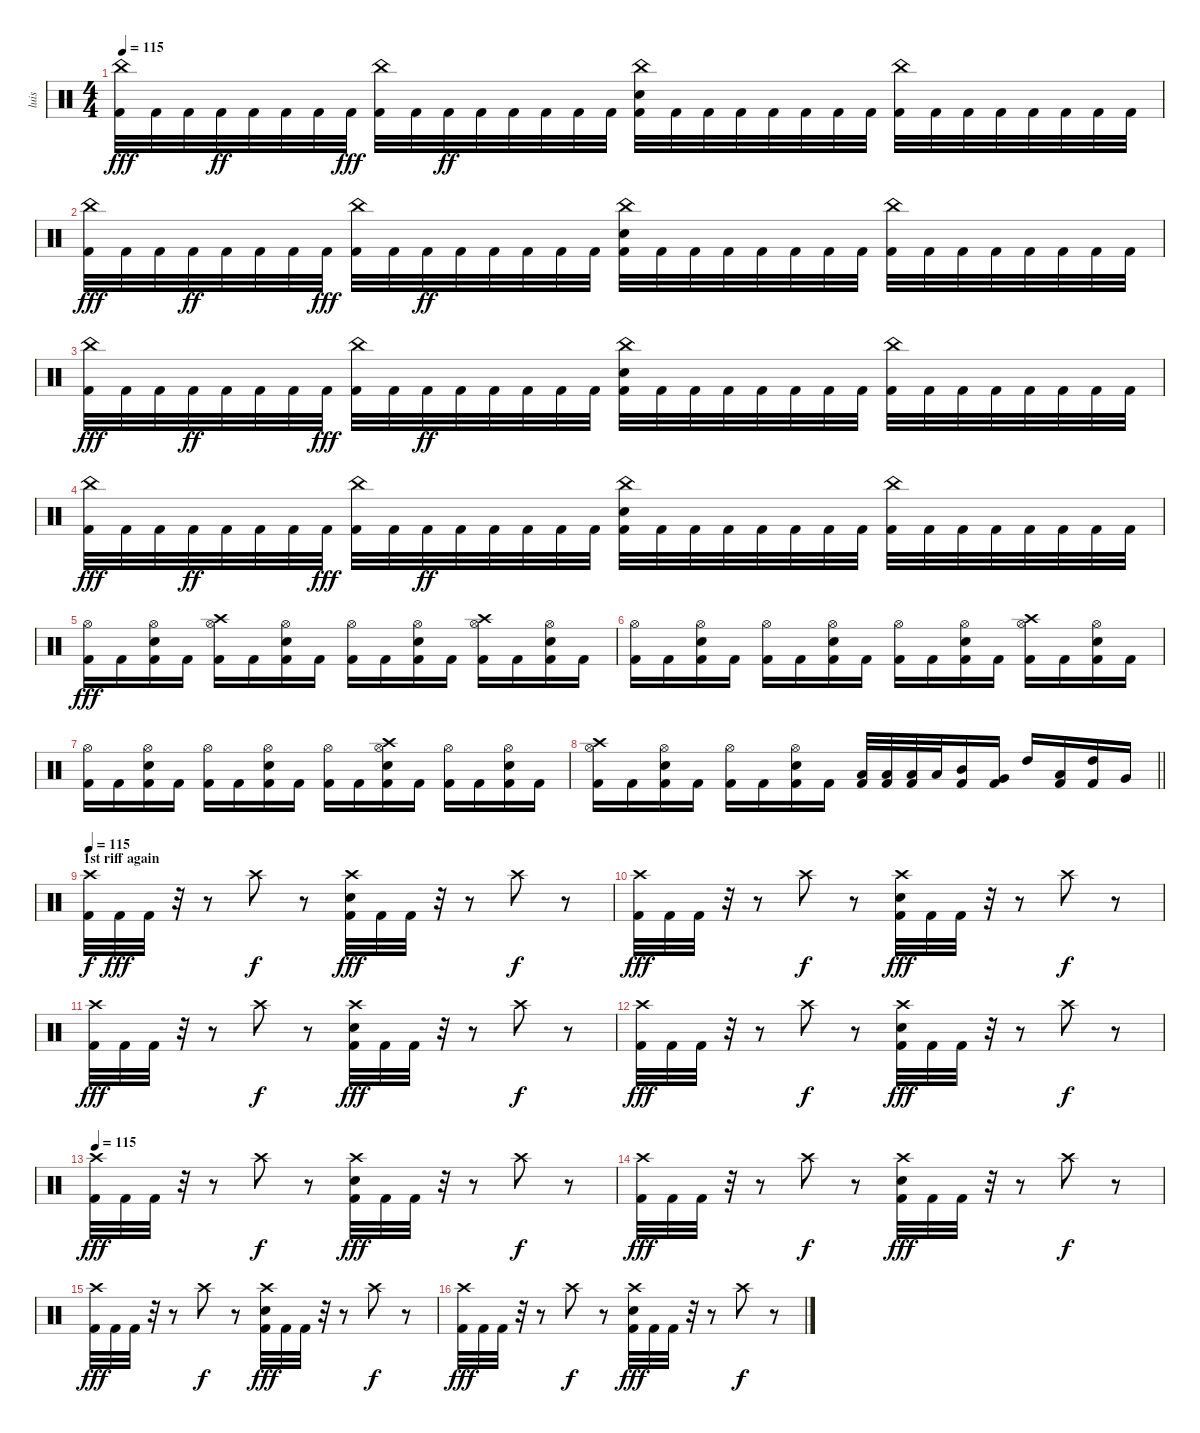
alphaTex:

\track ("luis" "luis") {instrument percussion}
\staff {score}
\articulation defaults
\ts (4 4)
\tempo 115
\clef neutral
\ks c
("China (hit)" "Kick (hit) 2").32{dy fff} "Kick (hit) 2".32 "Kick (hit) 2".32 "Kick (hit) 2".32{dy ff} "Kick (hit) 2".32 "Kick (hit) 2".32 "Kick (hit) 2".32 "Kick (hit) 2".32{dy fff} ("China (hit)" "Kick (hit) 2").32 "Kick (hit) 2".32 "Kick (hit) 2".32{dy ff} "Kick (hit) 2".32 "Kick (hit) 2".32 "Kick (hit) 2".32 "Kick (hit) 2".32 "Kick (hit) 2".32 ("China (hit)" "Electric Snare (hit)" "Kick (hit) 2").32 "Kick (hit) 2".32 "Kick (hit) 2".32 "Kick (hit) 2".32 "Kick (hit) 2".32 "Kick (hit) 2".32 "Kick (hit) 2".32 "Kick (hit) 2".32 ("China (hit)" "Kick (hit) 2").32 "Kick (hit) 2".32 "Kick (hit) 2".32 "Kick (hit) 2".32 "Kick (hit) 2".32 "Kick (hit) 2".32 "Kick (hit) 2".32 "Kick (hit) 2".32 |
("China (hit)" "Kick (hit) 2").32{dy fff} "Kick (hit) 2".32 "Kick (hit) 2".32 "Kick (hit) 2".32{dy ff} "Kick (hit) 2".32 "Kick (hit) 2".32 "Kick (hit) 2".32 "Kick (hit) 2".32{dy fff} ("China (hit)" "Kick (hit) 2").32 "Kick (hit) 2".32 "Kick (hit) 2".32{dy ff} "Kick (hit) 2".32 "Kick (hit) 2".32 "Kick (hit) 2".32 "Kick (hit) 2".32 "Kick (hit) 2".32 ("China (hit)" "Electric Snare (hit)" "Kick (hit) 2").32 "Kick (hit) 2".32 "Kick (hit) 2".32 "Kick (hit) 2".32 "Kick (hit) 2".32 "Kick (hit) 2".32 "Kick (hit) 2".32 "Kick (hit) 2".32 ("China (hit)" "Kick (hit) 2").32 "Kick (hit) 2".32 "Kick (hit) 2".32 "Kick (hit) 2".32 "Kick (hit) 2".32 "Kick (hit) 2".32 "Kick (hit) 2".32 "Kick (hit) 2".32 |
("China (hit)" "Kick (hit) 2").32{dy fff} "Kick (hit) 2".32 "Kick (hit) 2".32 "Kick (hit) 2".32{dy ff} "Kick (hit) 2".32 "Kick (hit) 2".32 "Kick (hit) 2".32 "Kick (hit) 2".32{dy fff} ("China (hit)" "Kick (hit) 2").32 "Kick (hit) 2".32 "Kick (hit) 2".32{dy ff} "Kick (hit) 2".32 "Kick (hit) 2".32 "Kick (hit) 2".32 "Kick (hit) 2".32 "Kick (hit) 2".32 ("China (hit)" "Electric Snare (hit)" "Kick (hit) 2").32 "Kick (hit) 2".32 "Kick (hit) 2".32 "Kick (hit) 2".32 "Kick (hit) 2".32 "Kick (hit) 2".32 "Kick (hit) 2".32 "Kick (hit) 2".32 ("China (hit)" "Kick (hit) 2").32 "Kick (hit) 2".32 "Kick (hit) 2".32 "Kick (hit) 2".32 "Kick (hit) 2".32 "Kick (hit) 2".32 "Kick (hit) 2".32 "Kick (hit) 2".32 |
("China (hit)" "Kick (hit) 2").32{dy fff} "Kick (hit) 2".32 "Kick (hit) 2".32 "Kick (hit) 2".32{dy ff} "Kick (hit) 2".32 "Kick (hit) 2".32 "Kick (hit) 2".32 "Kick (hit) 2".32{dy fff} ("China (hit)" "Kick (hit) 2").32 "Kick (hit) 2".32 "Kick (hit) 2".32{dy ff} "Kick (hit) 2".32 "Kick (hit) 2".32 "Kick (hit) 2".32 "Kick (hit) 2".32 "Kick (hit) 2".32 ("China (hit)" "Electric Snare (hit)" "Kick (hit) 2").32 "Kick (hit) 2".32 "Kick (hit) 2".32 "Kick (hit) 2".32 "Kick (hit) 2".32 "Kick (hit) 2".32 "Kick (hit) 2".32 "Kick (hit) 2".32 ("China (hit)" "Kick (hit) 2").32 "Kick (hit) 2".32 "Kick (hit) 2".32 "Kick (hit) 2".32 "Kick (hit) 2".32 "Kick (hit) 2".32 "Kick (hit) 2".32 "Kick (hit) 2".32 |
("Hi-Hat (open)" "Kick (hit) 2").16{dy fff} "Kick (hit) 2".16 ("Hi-Hat (open)" "Electric Snare (hit)" "Kick (hit) 2").16 "Kick (hit) 2".16 ("Crash high (hit)" "Hi-Hat (open)" "Kick (hit) 2").16 "Kick (hit) 2".16 ("Hi-Hat (open)" "Electric Snare (hit)" "Kick (hit) 2").16 "Kick (hit) 2".16 ("Hi-Hat (open)" "Kick (hit) 2").16 "Kick (hit) 2".16 ("Hi-Hat (open)" "Electric Snare (hit)" "Kick (hit) 2").16 "Kick (hit) 2".16 ("Crash high (hit)" "Hi-Hat (open)" "Kick (hit) 2").16 "Kick (hit) 2".16 ("Hi-Hat (open)" "Electric Snare (hit)" "Kick (hit) 2").16 "Kick (hit) 2".16 |
("Hi-Hat (open)" "Kick (hit) 2").16 "Kick (hit) 2".16 ("Hi-Hat (open)" "Electric Snare (hit)" "Kick (hit) 2").16 "Kick (hit) 2".16 ("Hi-Hat (open)" "Kick (hit) 2").16 "Kick (hit) 2".16 ("Hi-Hat (open)" "Electric Snare (hit)" "Kick (hit) 2").16 "Kick (hit) 2".16 ("Hi-Hat (open)" "Kick (hit) 2").16 "Kick (hit) 2".16 ("Hi-Hat (open)" "Electric Snare (hit)" "Kick (hit) 2").16 "Kick (hit) 2".16 ("Crash high (hit)" "Hi-Hat (open)" "Kick (hit) 2").16 "Kick (hit) 2".16 ("Hi-Hat (open)" "Electric Snare (hit)" "Kick (hit) 2").16 "Kick (hit) 2".16 |
("Hi-Hat (open)" "Kick (hit) 2").16 "Kick (hit) 2".16 ("Hi-Hat (open)" "Electric Snare (hit)" "Kick (hit) 2").16 "Kick (hit) 2".16 ("Hi-Hat (open)" "Kick (hit) 2").16 "Kick (hit) 2".16 ("Hi-Hat (open)" "Electric Snare (hit)" "Kick (hit) 2").16 "Kick (hit) 2".16 ("Hi-Hat (open)" "Kick (hit) 2").16 "Kick (hit) 2".16 ("Crash high (hit)" "Hi-Hat (open)" "Electric Snare (hit)" "Kick (hit) 2").16 "Kick (hit) 2".16 ("Hi-Hat (open)" "Kick (hit) 2").16 "Kick (hit) 2".16 ("Hi-Hat (open)" "Electric Snare (hit)" "Kick (hit) 2").16 "Kick (hit) 2".16 |
\barLineRight lightlight
("Crash high (hit)" "Hi-Hat (open)" "Kick (hit) 2").16 "Kick (hit) 2".16 ("Hi-Hat (open)" "Electric Snare (hit)" "Kick (hit) 2").16 "Kick (hit) 2".16 ("Hi-Hat (open)" "Kick (hit) 2").16 "Kick (hit) 2".16 ("Hi-Hat (open)" "Electric Snare (hit)" "Kick (hit) 2").16 "Kick (hit) 2".16 ("Low Tom (hit)" "Kick (hit) 2").32 ("Low Tom (hit)" "Kick (hit) 2").32 ("Low Tom (hit)" "Kick (hit) 2").32 "Low Tom (hit)".32 ("Mid Tom (hit)" "Kick (hit) 2").16 ("Very Low Tom (hit)" "Kick (hit) 2").16 "High Tom (hit)".16 ("Low Floor Tom (hit)" "Kick (hit) 2").16 ("High Tom (hit)" "Kick (hit) 2").16 "Very Low Tom (hit)".16 |
\section ("" "1st riff again")
\tempo 115
("Crash high (hit)" "Kick (hit) 2").32{dy f} "Kick (hit) 2".32{dy fff} "Kick (hit) 2".32 r.32 r.8 "Crash high (hit)".8{dy f} r.8 ("Crash high (hit)" "Electric Snare (hit)" "Kick (hit) 2").32{dy fff} "Kick (hit) 2".32 "Kick (hit) 2".32 r.32 r.8 "Crash high (hit)".8{dy f} r.8 |
("Crash high (hit)" "Kick (hit) 2").32{dy fff} "Kick (hit) 2".32 "Kick (hit) 2".32 r.32 r.8 "Crash high (hit)".8{dy f} r.8 ("Crash high (hit)" "Electric Snare (hit)" "Kick (hit) 2").32{dy fff} "Kick (hit) 2".32 "Kick (hit) 2".32 r.32 r.8 "Crash high (hit)".8{dy f} r.8 |
("Crash high (hit)" "Kick (hit) 2").32{dy fff} "Kick (hit) 2".32 "Kick (hit) 2".32 r.32 r.8 "Crash high (hit)".8{dy f} r.8 ("Crash high (hit)" "Electric Snare (hit)" "Kick (hit) 2").32{dy fff} "Kick (hit) 2".32 "Kick (hit) 2".32 r.32 r.8 "Crash high (hit)".8{dy f} r.8 |
("Crash high (hit)" "Kick (hit) 2").32{dy fff} "Kick (hit) 2".32 "Kick (hit) 2".32 r.32 r.8 "Crash high (hit)".8{dy f} r.8 ("Crash high (hit)" "Electric Snare (hit)" "Kick (hit) 2").32{dy fff} "Kick (hit) 2".32 "Kick (hit) 2".32 r.32 r.8 "Crash high (hit)".8{dy f} r.8 |
\tempo 115
("Crash high (hit)" "Kick (hit) 2").32{dy fff} "Kick (hit) 2".32 "Kick (hit) 2".32 r.32 r.8 "Crash high (hit)".8{dy f} r.8 ("Crash high (hit)" "Electric Snare (hit)" "Kick (hit) 2").32{dy fff} "Kick (hit) 2".32 "Kick (hit) 2".32 r.32 r.8 "Crash high (hit)".8{dy f} r.8 |
("Crash high (hit)" "Kick (hit) 2").32{dy fff} "Kick (hit) 2".32 "Kick (hit) 2".32 r.32 r.8 "Crash high (hit)".8{dy f} r.8 ("Crash high (hit)" "Electric Snare (hit)" "Kick (hit) 2").32{dy fff} "Kick (hit) 2".32 "Kick (hit) 2".32 r.32 r.8 "Crash high (hit)".8{dy f} r.8 |
("Crash high (hit)" "Kick (hit) 2").32{dy fff} "Kick (hit) 2".32 "Kick (hit) 2".32 r.32 r.8 "Crash high (hit)".8{dy f} r.8 ("Crash high (hit)" "Electric Snare (hit)" "Kick (hit) 2").32{dy fff} "Kick (hit) 2".32 "Kick (hit) 2".32 r.32 r.8 "Crash high (hit)".8{dy f} r.8 |
("Crash high (hit)" "Kick (hit) 2").32{dy fff} "Kick (hit) 2".32 "Kick (hit) 2".32 r.32 r.8 "Crash high (hit)".8{dy f} r.8 ("Crash high (hit)" "Electric Snare (hit)" "Kick (hit) 2").32{dy fff} "Kick (hit) 2".32 "Kick (hit) 2".32 r.32 r.8 "Crash high (hit)".8{dy f} r.8
